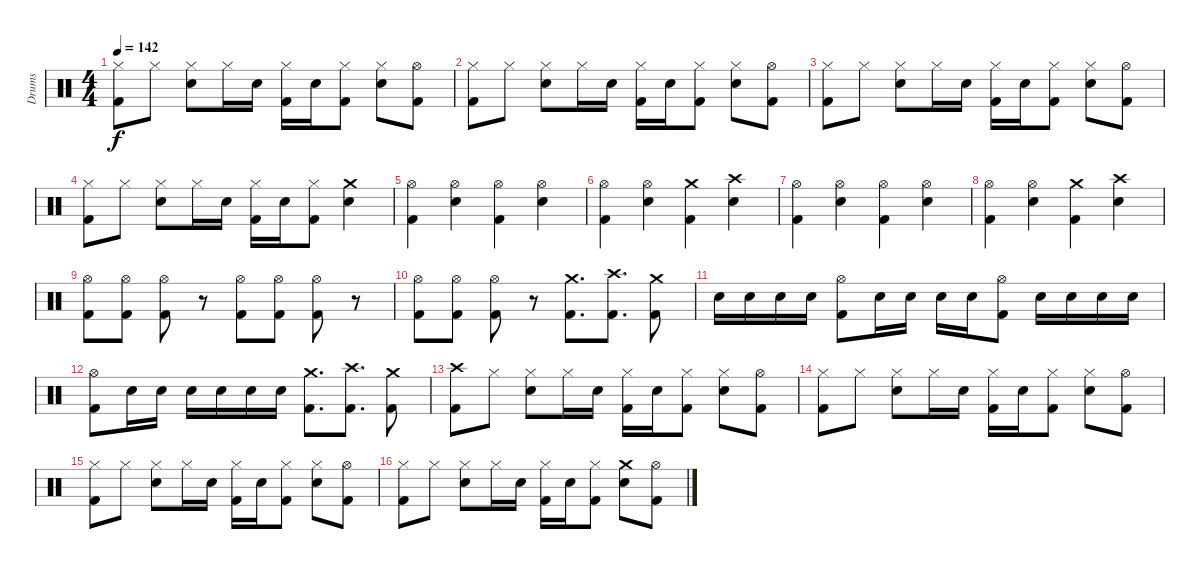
\track ("Drums" "Drums") {instrument percussion}
\staff {score}
\articulation defaults
\ts (4 4)
\tempo 142
\clef neutral
\ks c
("Hi-Hat (closed)" "Kick (hit) 2").8{dy f} "Hi-Hat (closed)".8 ("Hi-Hat (closed)" "Electric Snare (hit)").8 "Hi-Hat (closed)".16 "Electric Snare (hit)".16 ("Hi-Hat (closed)" "Kick (hit) 2").16 "Electric Snare (hit)".16 ("Hi-Hat (closed)" "Kick (hit) 2").8 ("Hi-Hat (closed)" "Electric Snare (hit)").8 ("Hi-Hat (open)" "Kick (hit) 2").8 |
("Hi-Hat (closed)" "Kick (hit) 2").8 "Hi-Hat (closed)".8 ("Hi-Hat (closed)" "Electric Snare (hit)").8 "Hi-Hat (closed)".16 "Electric Snare (hit)".16 ("Hi-Hat (closed)" "Kick (hit) 2").16 "Electric Snare (hit)".16 ("Hi-Hat (closed)" "Kick (hit) 2").8 ("Hi-Hat (closed)" "Electric Snare (hit)").8 ("Hi-Hat (open)" "Kick (hit) 2").8 |
("Hi-Hat (closed)" "Kick (hit) 2").8 "Hi-Hat (closed)".8 ("Hi-Hat (closed)" "Electric Snare (hit)").8 "Hi-Hat (closed)".16 "Electric Snare (hit)".16 ("Hi-Hat (closed)" "Kick (hit) 2").16 "Electric Snare (hit)".16 ("Hi-Hat (closed)" "Kick (hit) 2").8 ("Hi-Hat (closed)" "Electric Snare (hit)").8 ("Hi-Hat (open)" "Kick (hit) 2").8 |
("Hi-Hat (closed)" "Kick (hit) 2").8 "Hi-Hat (closed)".8 ("Hi-Hat (closed)" "Electric Snare (hit)").8 "Hi-Hat (closed)".16 "Electric Snare (hit)".16 ("Hi-Hat (closed)" "Kick (hit) 2").16 "Electric Snare (hit)".16 ("Hi-Hat (closed)" "Kick (hit) 2").8 ("Crash medium (hit)" "Electric Snare (hit)").4 |
("Hi-Hat (open)" "Kick (hit) 2").4 ("Hi-Hat (open)" "Electric Snare (hit)").4 ("Hi-Hat (open)" "Kick (hit) 2").4 ("Hi-Hat (open)" "Electric Snare (hit)").4 |
("Hi-Hat (open)" "Kick (hit) 2").4 ("Hi-Hat (open)" "Electric Snare (hit)").4 ("Crash medium (hit)" "Kick (hit) 2").4 ("Crash high (hit)" "Electric Snare (hit)").4 |
("Hi-Hat (open)" "Kick (hit) 2").4 ("Hi-Hat (open)" "Electric Snare (hit)").4 ("Hi-Hat (open)" "Kick (hit) 2").4 ("Hi-Hat (open)" "Electric Snare (hit)").4 |
("Hi-Hat (open)" "Kick (hit) 2").4 ("Hi-Hat (open)" "Electric Snare (hit)").4 ("Crash medium (hit)" "Kick (hit) 2").4 ("Crash high (hit)" "Electric Snare (hit)").4 |
("Hi-Hat (open)" "Kick (hit) 2").8 ("Hi-Hat (open)" "Kick (hit) 2").8 ("Hi-Hat (open)" "Kick (hit) 2").8 r.8 ("Hi-Hat (open)" "Kick (hit) 2").8 ("Hi-Hat (open)" "Kick (hit) 2").8 ("Hi-Hat (open)" "Kick (hit) 2").8 r.8 |
("Hi-Hat (open)" "Kick (hit) 2").8 ("Hi-Hat (open)" "Kick (hit) 2").8 ("Hi-Hat (open)" "Kick (hit) 2").8 r.8 ("Crash medium (hit)" "Kick (hit) 2").8{d} ("Crash high (hit)" "Kick (hit) 2").8{d} ("Crash medium (hit)" "Kick (hit) 2").8 |
"Electric Snare (hit)".16 "Electric Snare (hit)".16 "Electric Snare (hit)".16 "Electric Snare (hit)".16 ("Hi-Hat (open)" "Kick (hit) 2").8 "Electric Snare (hit)".16 "Electric Snare (hit)".16 "Electric Snare (hit)".16 "Electric Snare (hit)".16 ("Hi-Hat (open)" "Kick (hit) 2").8 "Electric Snare (hit)".16 "Electric Snare (hit)".16 "Electric Snare (hit)".16 "Electric Snare (hit)".16 |
("Hi-Hat (open)" "Kick (hit) 2").8 "Electric Snare (hit)".16 "Electric Snare (hit)".16 "Electric Snare (hit)".16 "Electric Snare (hit)".16 "Electric Snare (hit)".16 "Electric Snare (hit)".16 ("Crash medium (hit)" "Kick (hit) 2").8{d} ("Crash high (hit)" "Kick (hit) 2").8{d} ("Crash medium (hit)" "Kick (hit) 2").8 |
("Crash high (hit)" "Kick (hit) 2").8 "Hi-Hat (closed)".8 ("Hi-Hat (closed)" "Electric Snare (hit)").8 "Hi-Hat (closed)".16 "Electric Snare (hit)".16 ("Hi-Hat (closed)" "Kick (hit) 2").16 "Electric Snare (hit)".16 ("Hi-Hat (closed)" "Kick (hit) 2").8 ("Hi-Hat (closed)" "Electric Snare (hit)").8 ("Hi-Hat (open)" "Kick (hit) 2").8 |
("Hi-Hat (closed)" "Kick (hit) 2").8 "Hi-Hat (closed)".8 ("Hi-Hat (closed)" "Electric Snare (hit)").8 "Hi-Hat (closed)".16 "Electric Snare (hit)".16 ("Hi-Hat (closed)" "Kick (hit) 2").16 "Electric Snare (hit)".16 ("Hi-Hat (closed)" "Kick (hit) 2").8 ("Hi-Hat (closed)" "Electric Snare (hit)").8 ("Hi-Hat (open)" "Kick (hit) 2").8 |
("Hi-Hat (closed)" "Kick (hit) 2").8 "Hi-Hat (closed)".8 ("Hi-Hat (closed)" "Electric Snare (hit)").8 "Hi-Hat (closed)".16 "Electric Snare (hit)".16 ("Hi-Hat (closed)" "Kick (hit) 2").16 "Electric Snare (hit)".16 ("Hi-Hat (closed)" "Kick (hit) 2").8 ("Hi-Hat (closed)" "Electric Snare (hit)").8 ("Hi-Hat (open)" "Kick (hit) 2").8 |
("Hi-Hat (closed)" "Kick (hit) 2").8 "Hi-Hat (closed)".8 ("Hi-Hat (closed)" "Electric Snare (hit)").8 "Hi-Hat (closed)".16 "Electric Snare (hit)".16 ("Hi-Hat (closed)" "Kick (hit) 2").16 "Electric Snare (hit)".16 ("Hi-Hat (closed)" "Kick (hit) 2").8 ("Crash medium (hit)" "Electric Snare (hit)").8 ("Hi-Hat (open)" "Kick (hit) 2").8
